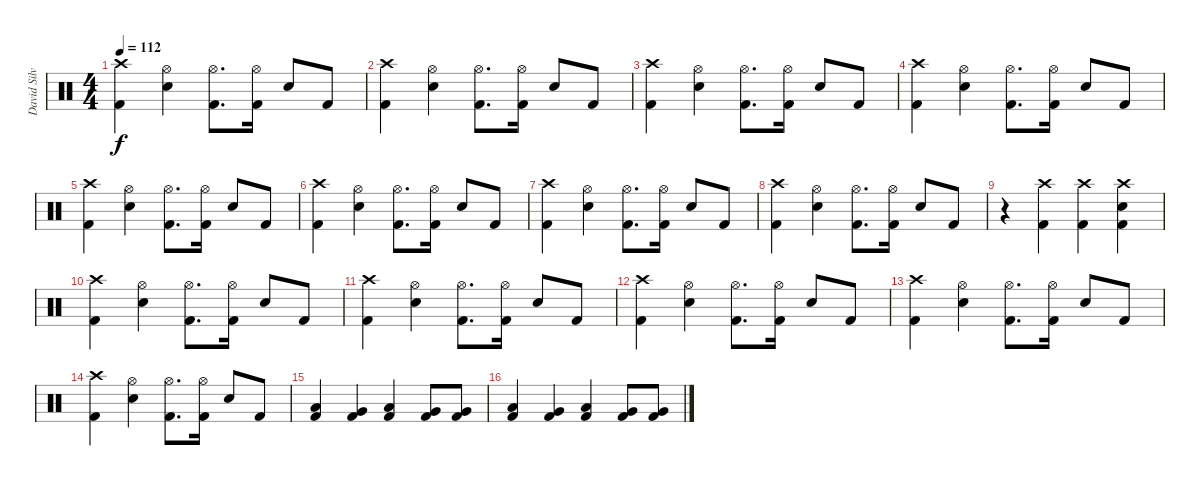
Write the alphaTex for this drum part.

\track ("David Silveria" "David Silv") {instrument percussion}
\staff {score}
\articulation defaults
\ts (4 4)
\tempo 112
\clef neutral
\ks c
("Crash high (hit)" "Kick (hit) 2").4{dy f} ("Hi-Hat (open)" "Electric Snare (hit)").4 ("Hi-Hat (open)" "Kick (hit) 2").8{d} ("Hi-Hat (open)" "Kick (hit) 2").16 "Electric Snare (hit)".8 "Kick (hit) 2".8 |
("Crash high (hit)" "Kick (hit) 2").4 ("Hi-Hat (open)" "Electric Snare (hit)").4 ("Hi-Hat (open)" "Kick (hit) 2").8{d} ("Hi-Hat (open)" "Kick (hit) 2").16 "Electric Snare (hit)".8 "Kick (hit) 2".8 |
("Crash high (hit)" "Kick (hit) 2").4 ("Hi-Hat (open)" "Electric Snare (hit)").4 ("Hi-Hat (open)" "Kick (hit) 2").8{d} ("Hi-Hat (open)" "Kick (hit) 2").16 "Electric Snare (hit)".8 "Kick (hit) 2".8 |
("Crash high (hit)" "Kick (hit) 2").4 ("Hi-Hat (open)" "Electric Snare (hit)").4 ("Hi-Hat (open)" "Kick (hit) 2").8{d} ("Hi-Hat (open)" "Kick (hit) 2").16 "Electric Snare (hit)".8 "Kick (hit) 2".8 |
("Crash high (hit)" "Kick (hit) 2").4 ("Hi-Hat (open)" "Electric Snare (hit)").4 ("Hi-Hat (open)" "Kick (hit) 2").8{d} ("Hi-Hat (open)" "Kick (hit) 2").16 "Electric Snare (hit)".8 "Kick (hit) 2".8 |
("Crash high (hit)" "Kick (hit) 2").4 ("Hi-Hat (open)" "Electric Snare (hit)").4 ("Hi-Hat (open)" "Kick (hit) 2").8{d} ("Hi-Hat (open)" "Kick (hit) 2").16 "Electric Snare (hit)".8 "Kick (hit) 2".8 |
("Crash high (hit)" "Kick (hit) 2").4 ("Hi-Hat (open)" "Electric Snare (hit)").4 ("Hi-Hat (open)" "Kick (hit) 2").8{d} ("Hi-Hat (open)" "Kick (hit) 2").16 "Electric Snare (hit)".8 "Kick (hit) 2".8 |
("Crash high (hit)" "Kick (hit) 2").4 ("Hi-Hat (open)" "Electric Snare (hit)").4 ("Hi-Hat (open)" "Kick (hit) 2").8{d} ("Hi-Hat (open)" "Kick (hit) 2").16 "Electric Snare (hit)".8 "Kick (hit) 2".8 |
r.4 ("Crash high (hit)" "Kick (hit) 2").4 ("Crash high (hit)" "Kick (hit) 2").4 ("Crash high (hit)" "Electric Snare (hit)" "Kick (hit) 2").4 |
("Crash high (hit)" "Kick (hit) 2").4 ("Hi-Hat (open)" "Electric Snare (hit)").4 ("Hi-Hat (open)" "Kick (hit) 2").8{d} ("Hi-Hat (open)" "Kick (hit) 2").16 "Electric Snare (hit)".8 "Kick (hit) 2".8 |
("Crash high (hit)" "Kick (hit) 2").4 ("Hi-Hat (open)" "Electric Snare (hit)").4 ("Hi-Hat (open)" "Kick (hit) 2").8{d} ("Hi-Hat (open)" "Kick (hit) 2").16 "Electric Snare (hit)".8 "Kick (hit) 2".8 |
("Crash high (hit)" "Kick (hit) 2").4 ("Hi-Hat (open)" "Electric Snare (hit)").4 ("Hi-Hat (open)" "Kick (hit) 2").8{d} ("Hi-Hat (open)" "Kick (hit) 2").16 "Electric Snare (hit)".8 "Kick (hit) 2".8 |
("Crash high (hit)" "Kick (hit) 2").4 ("Hi-Hat (open)" "Electric Snare (hit)").4 ("Hi-Hat (open)" "Kick (hit) 2").8{d} ("Hi-Hat (open)" "Kick (hit) 2").16 "Electric Snare (hit)".8 "Kick (hit) 2".8 |
("Crash high (hit)" "Kick (hit) 2").4 ("Hi-Hat (open)" "Electric Snare (hit)").4 ("Hi-Hat (open)" "Kick (hit) 2").8{d} ("Hi-Hat (open)" "Kick (hit) 2").16 "Electric Snare (hit)".8 "Kick (hit) 2".8 |
("Low Tom (hit)" "Kick (hit) 2").4 ("Very Low Tom (hit)" "Kick (hit) 2").4 ("Low Floor Tom (hit)" "Kick (hit) 2").4 ("Very Low Tom (hit)" "Kick (hit) 2").8 ("Very Low Tom (hit)" "Kick (hit) 2").8 |
("Low Tom (hit)" "Kick (hit) 2").4 ("Very Low Tom (hit)" "Kick (hit) 2").4 ("Low Floor Tom (hit)" "Kick (hit) 2").4 ("Very Low Tom (hit)" "Kick (hit) 2").8 ("Very Low Tom (hit)" "Kick (hit) 2").8
